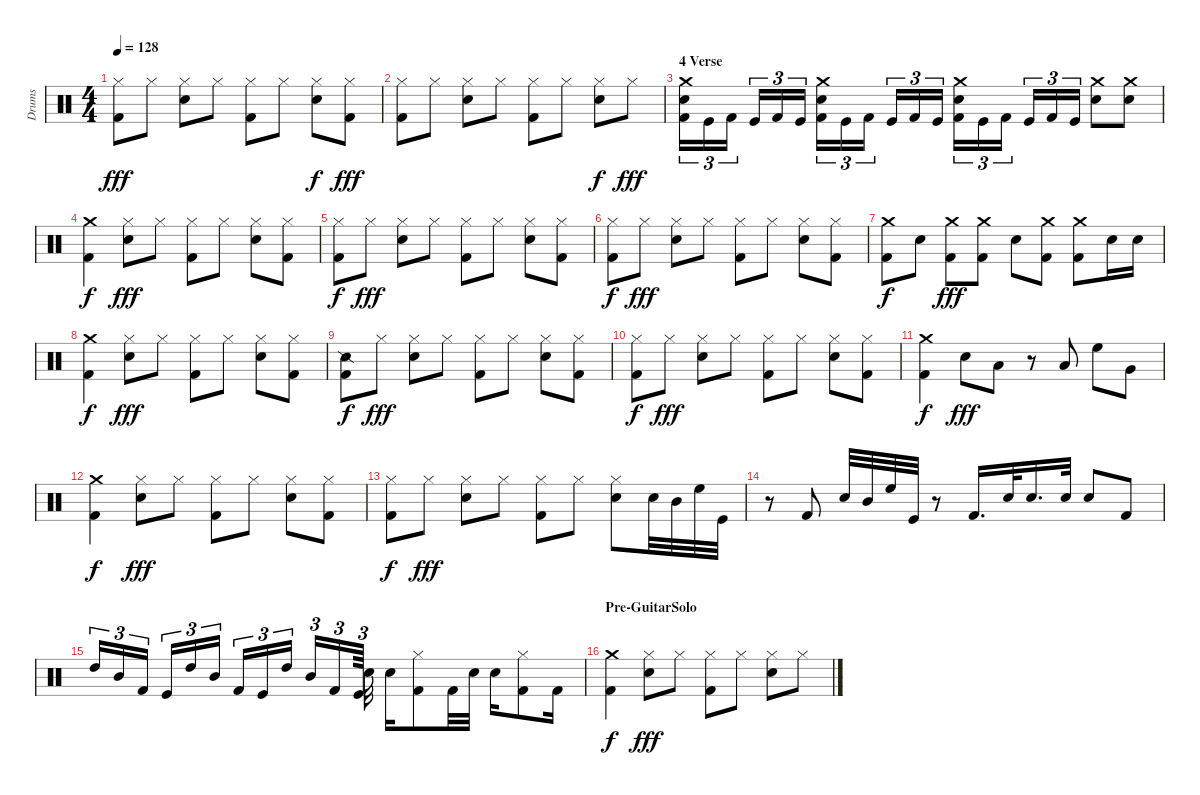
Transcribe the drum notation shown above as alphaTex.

\track ("Drums" "Drums") {instrument percussion}
\staff {score}
\articulation defaults
\ts (4 4)
\tempo 128
\clef neutral
\ks c
("Hi-Hat (closed)" "Kick (hit) 2").8{dy fff} "Hi-Hat (closed)".8 ("Snare (hit) 2" "Hi-Hat (closed)").8 "Hi-Hat (closed)".8 ("Hi-Hat (closed)" "Kick (hit) 2").8 "Hi-Hat (closed)".8 ("Hi-Hat (closed)" "Snare (hit) 2").8{dy f} ("Hi-Hat (closed)" "Kick (hit) 2").8{dy fff} |
("Hi-Hat (closed)" "Kick (hit) 2").8 "Hi-Hat (closed)".8 ("Snare (hit) 2" "Hi-Hat (closed)").8 "Hi-Hat (closed)".8 ("Hi-Hat (closed)" "Kick (hit) 2").8 "Hi-Hat (closed)".8 ("Snare (hit) 2" "Hi-Hat (closed)").8{dy f} "Hi-Hat (closed)".8{dy fff} |
\section ("" "4 Verse")
("Snare (hit) 2" "Crash medium (hit)" "Kick (hit) 2").16{tu (3 2)} "Kick (hit)".16{tu (3 2)} "Kick (hit) 2".16{tu (3 2)} "Kick (hit)".16{tu (3 2)} "Kick (hit) 2".16{tu (3 2)} "Kick (hit)".16{tu (3 2)} ("Crash medium (hit)" "Snare (hit) 2" "Kick (hit) 2").16{tu (3 2)} "Kick (hit)".16{tu (3 2)} "Kick (hit) 2".16{tu (3 2)} "Kick (hit)".16{tu (3 2)} "Kick (hit) 2".16{tu (3 2)} "Kick (hit)".16{tu (3 2)} ("Crash medium (hit)" "Snare (hit) 2" "Kick (hit) 2").16{tu (3 2)} "Kick (hit)".16{tu (3 2)} "Kick (hit) 2".16{tu (3 2)} "Kick (hit)".16{tu (3 2)} "Kick (hit) 2".16{tu (3 2)} "Kick (hit)".16{tu (3 2)} ("Crash medium (hit)" "Snare (hit) 2").8 ("Crash medium (hit)" "Snare (hit) 2").8 |
("Kick (hit) 2" "Crash medium (hit)").4{dy f} ("Snare (hit) 2" "Hi-Hat (closed)").8{dy fff} "Hi-Hat (closed)".8 ("Hi-Hat (closed)" "Kick (hit) 2").8 "Hi-Hat (closed)".8 ("Snare (hit) 2" "Hi-Hat (closed)").8 ("Kick (hit) 2" "Hi-Hat (closed)").8 |
("Hi-Hat (closed)" "Kick (hit) 2").8{dy f} "Hi-Hat (closed)".8{dy fff} ("Snare (hit) 2" "Hi-Hat (closed)").8 "Hi-Hat (closed)".8 ("Hi-Hat (closed)" "Kick (hit) 2").8 "Hi-Hat (closed)".8 ("Snare (hit) 2" "Hi-Hat (closed)").8 ("Kick (hit) 2" "Hi-Hat (closed)").8 |
("Hi-Hat (closed)" "Kick (hit) 2").8{dy f} "Hi-Hat (closed)".8{dy fff} ("Snare (hit) 2" "Hi-Hat (closed)").8 "Hi-Hat (closed)".8 ("Hi-Hat (closed)" "Kick (hit) 2").8 "Hi-Hat (closed)".8 ("Snare (hit) 2" "Hi-Hat (closed)").8 ("Kick (hit) 2" "Hi-Hat (closed)").8 |
("Crash medium (hit)" "Kick (hit) 2").8{dy f} "Snare (hit) 2".8 ("Kick (hit) 2" "Crash medium (hit)").8{dy fff} ("Kick (hit) 2" "Crash medium (hit)").8 "Snare (hit) 2".8 ("Crash medium (hit)" "Kick (hit) 2").8 ("Crash medium (hit)" "Kick (hit) 2").8 "Snare (hit) 2".16 "Snare (hit) 2".16 |
("Kick (hit) 2" "Crash medium (hit)").4{dy f} ("Snare (hit) 2" "Hi-Hat (closed)").8{dy fff} "Hi-Hat (closed)".8 ("Hi-Hat (closed)" "Kick (hit) 2").8 "Hi-Hat (closed)".8 ("Snare (hit) 2" "Hi-Hat (closed)").8 ("Kick (hit) 2" "Hi-Hat (closed)").8 |
("Snare (side stick) 2" "Kick (hit) 2").8{dy f} "Hi-Hat (closed)".8{dy fff} ("Snare (hit) 2" "Hi-Hat (closed)").8 "Hi-Hat (closed)".8 ("Hi-Hat (closed)" "Kick (hit) 2").8 "Hi-Hat (closed)".8 ("Snare (hit) 2" "Hi-Hat (closed)").8 ("Kick (hit) 2" "Hi-Hat (closed)").8 |
("Hi-Hat (closed)" "Kick (hit) 2").8{dy f} "Hi-Hat (closed)".8{dy fff} ("Snare (hit) 2" "Hi-Hat (closed)").8 "Hi-Hat (closed)".8 ("Hi-Hat (closed)" "Kick (hit) 2").8 "Hi-Hat (closed)".8 ("Snare (hit) 2" "Hi-Hat (closed)").8 ("Kick (hit) 2" "Hi-Hat (closed)").8 |
("Kick (hit) 2" "Crash medium (hit)").4{dy f} "Snare (hit) 2".8{dy fff} "Low Tom (hit)".8 r.8 "Low Tom (hit)".8 "High Floor Tom (hit)".8 "Very Low Tom (hit)".8 |
("Kick (hit) 2" "Crash medium (hit)").4{dy f} ("Snare (hit) 2" "Hi-Hat (closed)").8{dy fff} "Hi-Hat (closed)".8 ("Hi-Hat (closed)" "Kick (hit) 2").8 "Hi-Hat (closed)".8 ("Snare (hit) 2" "Hi-Hat (closed)").8 ("Kick (hit) 2" "Hi-Hat (closed)").8 |
("Hi-Hat (closed)" "Kick (hit) 2").8{dy f} "Hi-Hat (closed)".8{dy fff} ("Snare (hit) 2" "Hi-Hat (closed)").8 "Hi-Hat (closed)".8 ("Hi-Hat (closed)" "Kick (hit) 2").8 "Hi-Hat (closed)".8 ("Snare (hit) 2" "Hi-Hat (closed)").8 "Snare (hit) 2".32 "Mid Tom (hit)".32 "High Floor Tom (hit)".32 "Kick (hit)".32 |
r.8 "Kick (hit) 2".8 "Snare (hit) 2".32 "Mid Tom (hit)".32 "High Floor Tom (hit)".32 "Kick (hit)".32 r.8 "Kick (hit) 2".16{d} "Snare (hit) 2".32 "Snare (hit) 2".16{d} "Snare (hit) 2".32 "Snare (hit) 2".8 "Kick (hit) 2".8 |
"High Tom (hit)".16{tu (3 2)} "Mid Tom (hit)".16{tu (3 2)} "Kick (hit) 2".16{tu (3 2)} "Kick (hit)".16{tu (3 2)} "High Tom (hit)".16{tu (3 2)} "Mid Tom (hit)".16{tu (3 2)} "Kick (hit) 2".16{tu (3 2)} "Kick (hit)".16{tu (3 2)} "High Tom (hit)".16{tu (3 2)} "Mid Tom (hit)".16{tu (3 2)} "Kick (hit) 2".16{tu (3 2)} "Kick (hit)".64{tu (3 2)} "Snare (hit) 2".32 "Snare (hit) 2".16 ("Hi-Hat (closed)" "Kick (hit) 2").8 "Kick (hit) 2".32 "Snare (hit) 2".32 "Snare (hit) 2".16 ("Hi-Hat (closed)" "Kick (hit) 2").8 "Kick (hit) 2".16 |
\section ("" "Pre-GuitarSolo")
("Kick (hit) 2" "Crash medium (hit)").4{dy f} ("Hi-Hat (closed)" "Snare (hit) 2").8{dy fff} "Hi-Hat (closed)".8 ("Hi-Hat (closed)" "Kick (hit) 2").8 "Hi-Hat (closed)".8 ("Snare (hit) 2" "Hi-Hat (closed)").8 "Hi-Hat (closed)".8
